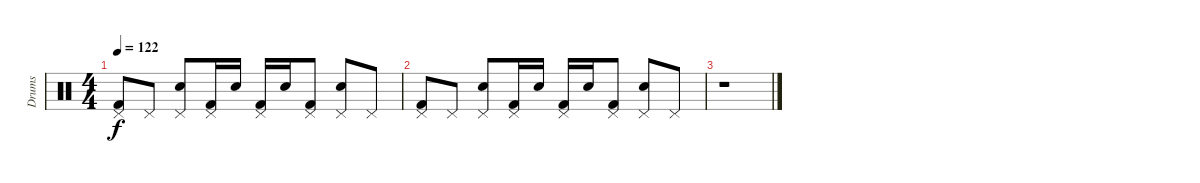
\track ("Drums" "Drums") {instrument percussion}
\staff {score}
\articulation defaults
\ts (4 4)
\tempo 122
\clef neutral
\ks c
("Pedal Hi-Hat (hit)" "Kick (hit) 2").8{dy f} "Pedal Hi-Hat (hit)".8 ("Pedal Hi-Hat (hit)" "Electric Snare (hit)").8 ("Pedal Hi-Hat (hit)" "Kick (hit) 2").16 "Electric Snare (hit)".16 ("Pedal Hi-Hat (hit)" "Kick (hit) 2").16 "Electric Snare (hit)".16 ("Pedal Hi-Hat (hit)" "Kick (hit) 2").8 ("Pedal Hi-Hat (hit)" "Electric Snare (hit)").8 "Pedal Hi-Hat (hit)".8 |
("Pedal Hi-Hat (hit)" "Kick (hit) 2").8 "Pedal Hi-Hat (hit)".8 ("Pedal Hi-Hat (hit)" "Electric Snare (hit)").8 ("Pedal Hi-Hat (hit)" "Kick (hit) 2").16 "Electric Snare (hit)".16 ("Pedal Hi-Hat (hit)" "Kick (hit) 2").16 "Electric Snare (hit)".16 ("Pedal Hi-Hat (hit)" "Kick (hit) 2").8 ("Pedal Hi-Hat (hit)" "Electric Snare (hit)").8 "Pedal Hi-Hat (hit)".8 |
r.1
